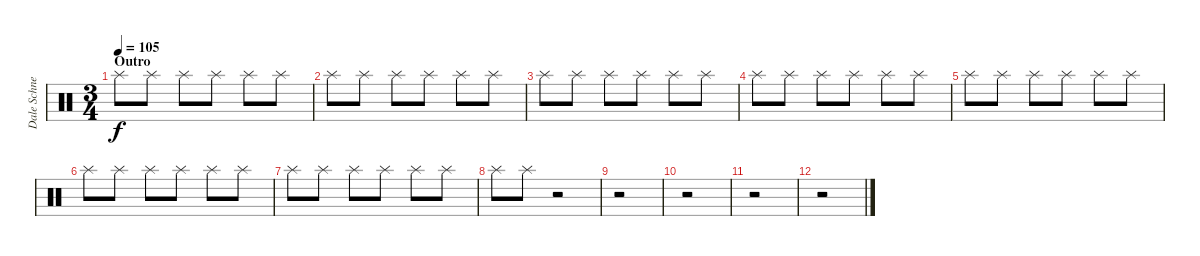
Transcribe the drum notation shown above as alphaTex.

\track ("Dale Schnettler (Drums)" "Dale Schne") {instrument percussion}
\staff {score}
\articulation defaults
\ts (3 4)
\section ("" "Outro")
\tempo 105
\clef neutral
\ks c "Splash (hit)".8{dy f} "Splash (hit)".8 "Splash (hit)".8 "Splash (hit)".8 "Splash (hit)".8 "Splash (hit)".8
|
"Splash (hit)".8 "Splash (hit)".8 "Splash (hit)".8 "Splash (hit)".8 "Splash (hit)".8 "Splash (hit)".8 |
"Splash (hit)".8 "Splash (hit)".8 "Splash (hit)".8 "Splash (hit)".8 "Splash (hit)".8 "Splash (hit)".8 |
"Splash (hit)".8 "Splash (hit)".8 "Splash (hit)".8 "Splash (hit)".8 "Splash (hit)".8 "Splash (hit)".8 |
"Splash (hit)".8 "Splash (hit)".8 "Splash (hit)".8 "Splash (hit)".8 "Splash (hit)".8 "Splash (hit)".8 |
"Splash (hit)".8 "Splash (hit)".8 "Splash (hit)".8 "Splash (hit)".8 "Splash (hit)".8 "Splash (hit)".8 |
"Splash (hit)".8 "Splash (hit)".8 "Splash (hit)".8 "Splash (hit)".8 "Splash (hit)".8 "Splash (hit)".8 |
"Splash (hit)".8 "Splash (hit)".8 r.2 |
r.2 |
r.2 |
r.2 |
r.2
